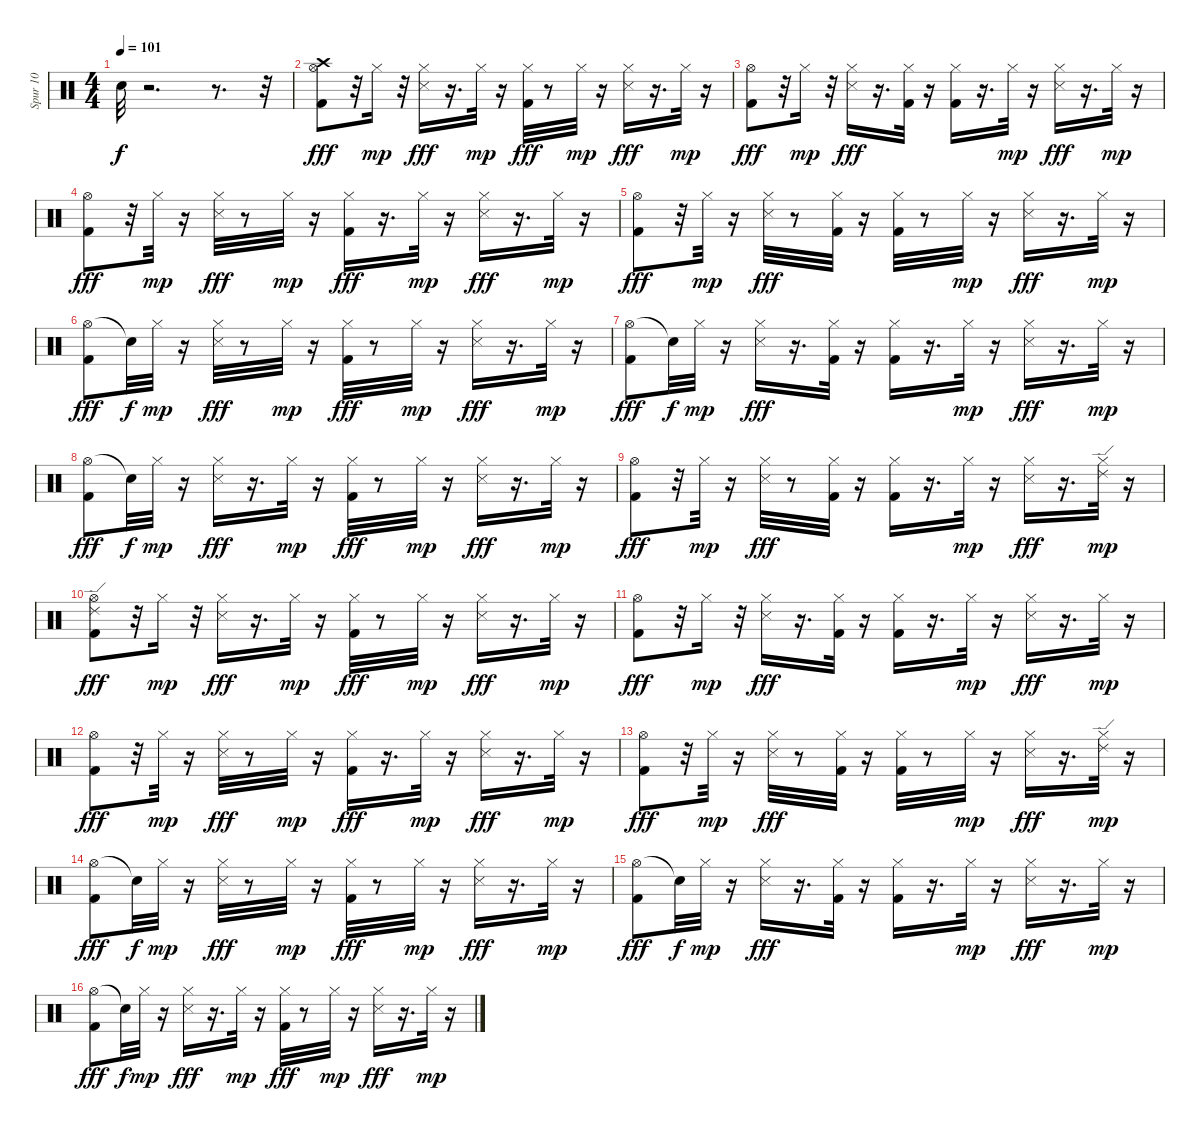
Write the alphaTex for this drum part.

\track ("Spur 10" "Spur 10") {instrument percussion}
\staff {score}
\articulation defaults
\ts (4 4)
\tempo 101
\clef neutral
\ks c "Snare (hit)"{t}.32{dy f}
r.2{d} r.8{d} r.32 |
("Crash high (hit)" "Hi-Hat (open)" "Kick (hit) 2").8{dy fff} r.32 "Hi-Hat (closed)".16{dy mp} r.32 ("Hi-Hat (closed)" "Snare (side stick) 3").16{dy fff} r.16{d} "Hi-Hat (closed)".32{dy mp} r.16 ("Hi-Hat (closed)" "Kick (hit) 2").32{dy fff} r.8 "Hi-Hat (closed)".32{dy mp} r.16 ("Hi-Hat (closed)" "Snare (side stick) 3").16{dy fff} r.16{d} "Hi-Hat (closed)".32{dy mp} r.16 |
("Hi-Hat (open)" "Kick (hit) 2").8{dy fff} r.32 "Hi-Hat (closed)".16{dy mp} r.32 ("Hi-Hat (closed)" "Snare (side stick) 3").16{dy fff} r.16{d} ("Hi-Hat (closed)" "Kick (hit) 2").32 r.16 ("Hi-Hat (closed)" "Kick (hit) 2").16 r.16{d} "Hi-Hat (closed)".32{dy mp} r.16 ("Hi-Hat (closed)" "Snare (side stick) 3").16{dy fff} r.16{d} "Hi-Hat (closed)".32{dy mp} r.16 |
("Hi-Hat (open)" "Kick (hit) 2").8{dy fff} r.32 "Hi-Hat (closed)".32{dy mp} r.16 ("Hi-Hat (closed)" "Snare (side stick) 3").32{dy fff} r.8 "Hi-Hat (closed)".32{dy mp} r.16 ("Hi-Hat (closed)" "Kick (hit) 2").16{dy fff} r.16{d} "Hi-Hat (closed)".32{dy mp} r.16 ("Hi-Hat (closed)" "Snare (side stick) 3").16{dy fff} r.16{d} "Hi-Hat (closed)".32{dy mp} r.16 |
("Hi-Hat (open)" "Kick (hit) 2").8{dy fff} r.32 "Hi-Hat (closed)".32{dy mp} r.16 ("Hi-Hat (closed)" "Snare (side stick) 3").32{dy fff} r.8 ("Hi-Hat (closed)" "Kick (hit) 2").32 r.16 ("Hi-Hat (closed)" "Kick (hit) 2").32 r.8 "Hi-Hat (closed)".32{dy mp} r.16 ("Hi-Hat (closed)" "Snare (side stick) 3").16{dy fff} r.16{d} "Hi-Hat (closed)".32{dy mp} r.16 |
("Hi-Hat (open)" "Kick (hit) 2").8{dy fff} "Snare (hit)"{t}.32{dy f} "Hi-Hat (closed)".32{dy mp} r.16 ("Hi-Hat (closed)" "Snare (side stick) 3").32{dy fff} r.8 "Hi-Hat (closed)".32{dy mp} r.16 ("Hi-Hat (closed)" "Kick (hit) 2").32{dy fff} r.8 "Hi-Hat (closed)".32{dy mp} r.16 ("Hi-Hat (closed)" "Snare (side stick) 3").16{dy fff} r.16{d} "Hi-Hat (closed)".32{dy mp} r.16 |
("Hi-Hat (open)" "Kick (hit) 2").8{dy fff} "Snare (hit)"{t}.32{dy f} "Hi-Hat (closed)".32{dy mp} r.16 ("Hi-Hat (closed)" "Snare (side stick) 3").16{dy fff} r.16{d} ("Hi-Hat (closed)" "Kick (hit) 2").32 r.16 ("Hi-Hat (closed)" "Kick (hit) 2").16 r.16{d} "Hi-Hat (closed)".32{dy mp} r.16 ("Hi-Hat (closed)" "Snare (side stick) 3").16{dy fff} r.16{d} "Hi-Hat (closed)".32{dy mp} r.16 |
("Hi-Hat (open)" "Kick (hit) 2").8{dy fff} "Snare (hit)"{t}.32{dy f} "Hi-Hat (closed)".32{dy mp} r.16 ("Hi-Hat (closed)" "Snare (side stick) 3").16{dy fff} r.16{d} "Hi-Hat (closed)".32{dy mp} r.16 ("Hi-Hat (closed)" "Kick (hit) 2").32{dy fff} r.8 "Hi-Hat (closed)".32{dy mp} r.16 ("Hi-Hat (closed)" "Snare (side stick) 3").16{dy fff} r.16{d} "Hi-Hat (closed)".32{dy mp} r.16 |
("Hi-Hat (open)" "Kick (hit) 2").8{dy fff} r.32 "Hi-Hat (closed)".32{dy mp} r.16 ("Hi-Hat (closed)" "Snare (side stick) 3").32{dy fff} r.8 ("Hi-Hat (closed)" "Kick (hit) 2").32 r.16 ("Hi-Hat (closed)" "Kick (hit) 2").16 r.16{d} "Hi-Hat (closed)".32{dy mp} r.16 ("Hi-Hat (closed)" "Snare (side stick) 3").16{dy fff} r.16{d} ("Hi-Hat (closed)" "Ride (edge) 2").32{dy mp} r.16 |
("Hi-Hat (open)" "Kick (hit) 2" "Ride (edge) 2").8{dy fff} r.32 "Hi-Hat (closed)".16{dy mp} r.32 ("Hi-Hat (closed)" "Snare (side stick) 3").16{dy fff} r.16{d} "Hi-Hat (closed)".32{dy mp} r.16 ("Hi-Hat (closed)" "Kick (hit) 2").32{dy fff} r.8 "Hi-Hat (closed)".32{dy mp} r.16 ("Hi-Hat (closed)" "Snare (side stick) 3").16{dy fff} r.16{d} "Hi-Hat (closed)".32{dy mp} r.16 |
("Hi-Hat (open)" "Kick (hit) 2").8{dy fff} r.32 "Hi-Hat (closed)".16{dy mp} r.32 ("Hi-Hat (closed)" "Snare (side stick) 3").16{dy fff} r.16{d} ("Hi-Hat (closed)" "Kick (hit) 2").32 r.16 ("Hi-Hat (closed)" "Kick (hit) 2").16 r.16{d} "Hi-Hat (closed)".32{dy mp} r.16 ("Hi-Hat (closed)" "Snare (side stick) 3").16{dy fff} r.16{d} "Hi-Hat (closed)".32{dy mp} r.16 |
("Hi-Hat (open)" "Kick (hit) 2").8{dy fff} r.32 "Hi-Hat (closed)".32{dy mp} r.16 ("Hi-Hat (closed)" "Snare (side stick) 3").32{dy fff} r.8 "Hi-Hat (closed)".32{dy mp} r.16 ("Hi-Hat (closed)" "Kick (hit) 2").16{dy fff} r.16{d} "Hi-Hat (closed)".32{dy mp} r.16 ("Hi-Hat (closed)" "Snare (side stick) 3").16{dy fff} r.16{d} "Hi-Hat (closed)".32{dy mp} r.16 |
("Hi-Hat (open)" "Kick (hit) 2").8{dy fff} r.32 "Hi-Hat (closed)".32{dy mp} r.16 ("Hi-Hat (closed)" "Snare (side stick) 3").32{dy fff} r.8 ("Hi-Hat (closed)" "Kick (hit) 2").32 r.16 ("Hi-Hat (closed)" "Kick (hit) 2").32 r.8 "Hi-Hat (closed)".32{dy mp} r.16 ("Hi-Hat (closed)" "Snare (side stick) 3").16{dy fff} r.16{d} ("Hi-Hat (closed)" "Ride (edge) 2").32{dy mp} r.16 |
("Hi-Hat (open)" "Kick (hit) 2").8{dy fff} "Snare (hit)"{t}.32{dy f} "Hi-Hat (closed)".32{dy mp} r.16 ("Hi-Hat (closed)" "Snare (side stick) 3").32{dy fff} r.8 "Hi-Hat (closed)".32{dy mp} r.16 ("Hi-Hat (closed)" "Kick (hit) 2").32{dy fff} r.8 "Hi-Hat (closed)".32{dy mp} r.16 ("Hi-Hat (closed)" "Snare (side stick) 3").16{dy fff} r.16{d} "Hi-Hat (closed)".32{dy mp} r.16 |
("Hi-Hat (open)" "Kick (hit) 2").8{dy fff} "Snare (hit)"{t}.32{dy f} "Hi-Hat (closed)".32{dy mp} r.16 ("Hi-Hat (closed)" "Snare (side stick) 3").16{dy fff} r.16{d} ("Hi-Hat (closed)" "Kick (hit) 2").32 r.16 ("Hi-Hat (closed)" "Kick (hit) 2").16 r.16{d} "Hi-Hat (closed)".32{dy mp} r.16 ("Hi-Hat (closed)" "Snare (side stick) 3").16{dy fff} r.16{d} "Hi-Hat (closed)".32{dy mp} r.16 |
("Hi-Hat (open)" "Kick (hit) 2").8{dy fff} "Snare (hit)"{t}.32{dy f} "Hi-Hat (closed)".32{dy mp} r.16 ("Hi-Hat (closed)" "Snare (side stick) 3").16{dy fff} r.16{d} "Hi-Hat (closed)".32{dy mp} r.16 ("Hi-Hat (closed)" "Kick (hit) 2").32{dy fff} r.8 "Hi-Hat (closed)".32{dy mp} r.16 ("Hi-Hat (closed)" "Snare (side stick) 3").16{dy fff} r.16{d} "Hi-Hat (closed)".32{dy mp} r.16
